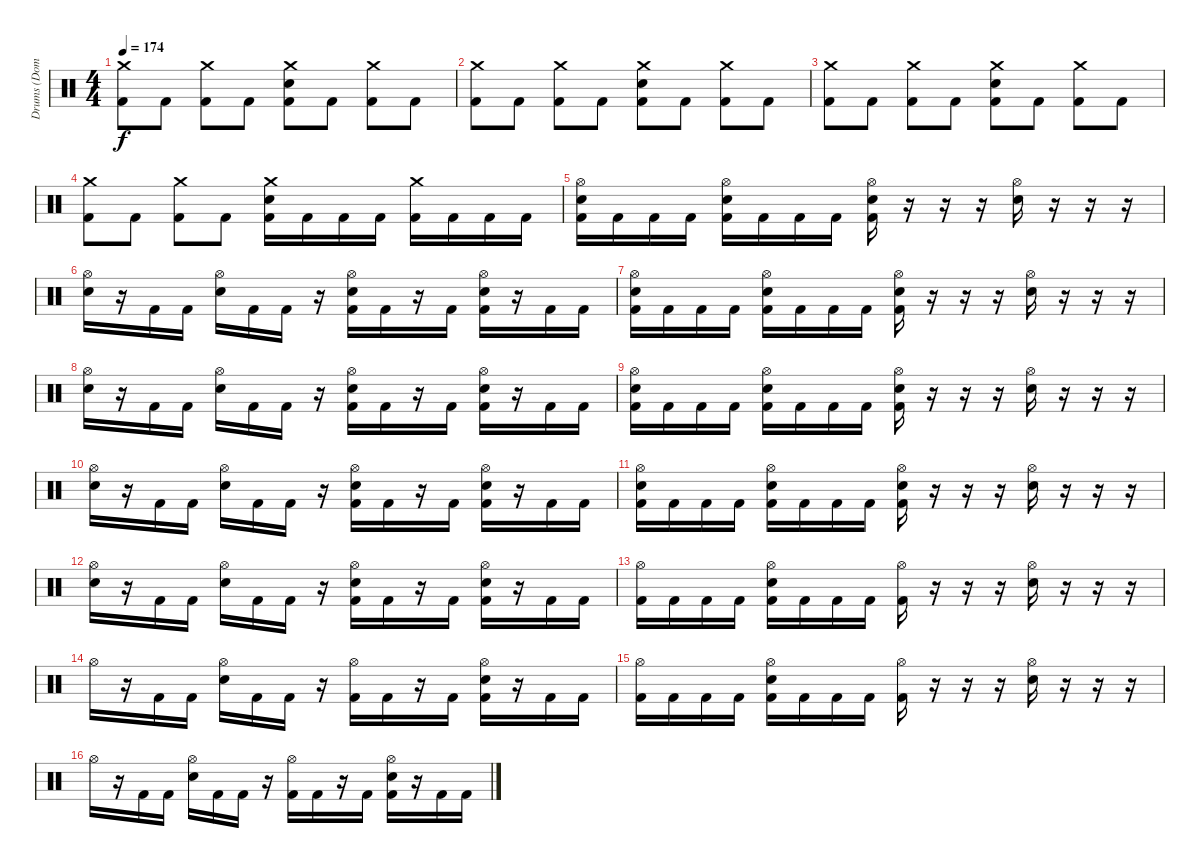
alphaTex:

\track ("Drums (Dominik)" "Drums (Dom") {instrument percussion}
\staff {score}
\articulation defaults
\ts (4 4)
\tempo 174
\clef neutral
\ks c
("Crash medium (hit)" "Kick (hit) 2").8{dy f} "Kick (hit) 2".8 ("Crash medium (hit)" "Kick (hit) 2").8 "Kick (hit) 2".8 ("Crash medium (hit)" "Electric Snare (hit)" "Kick (hit) 2").8 "Kick (hit) 2".8 ("Crash medium (hit)" "Kick (hit) 2").8 "Kick (hit) 2".8 |
("Crash medium (hit)" "Kick (hit) 2").8 "Kick (hit) 2".8 ("Crash medium (hit)" "Kick (hit) 2").8 "Kick (hit) 2".8 ("Crash medium (hit)" "Electric Snare (hit)" "Kick (hit) 2").8 "Kick (hit) 2".8 ("Crash medium (hit)" "Kick (hit) 2").8 "Kick (hit) 2".8 |
("Crash medium (hit)" "Kick (hit) 2").8 "Kick (hit) 2".8 ("Crash medium (hit)" "Kick (hit) 2").8 "Kick (hit) 2".8 ("Crash medium (hit)" "Electric Snare (hit)" "Kick (hit) 2").8 "Kick (hit) 2".8 ("Crash medium (hit)" "Kick (hit) 2").8 "Kick (hit) 2".8 |
("Crash medium (hit)" "Kick (hit) 2").8 "Kick (hit) 2".8 ("Crash medium (hit)" "Kick (hit) 2").8 "Kick (hit) 2".8 ("Crash medium (hit)" "Electric Snare (hit)" "Kick (hit) 2").16 "Kick (hit) 2".16 "Kick (hit) 2".16 "Kick (hit) 2".16 ("Crash medium (hit)" "Kick (hit) 2").16 "Kick (hit) 2".16 "Kick (hit) 2".16 "Kick (hit) 2".16 |
("Hi-Hat (open)" "Electric Snare (hit)" "Kick (hit) 2").16 "Kick (hit) 2".16 "Kick (hit) 2".16 "Kick (hit) 2".16 ("Hi-Hat (open)" "Electric Snare (hit)" "Kick (hit) 2").16 "Kick (hit) 2".16 "Kick (hit) 2".16 "Kick (hit) 2".16 ("Hi-Hat (open)" "Electric Snare (hit)" "Kick (hit) 2").16 r.16 r.16 r.16 ("Hi-Hat (open)" "Electric Snare (hit)").16 r.16 r.16 r.16 |
("Hi-Hat (open)" "Electric Snare (hit)").16 r.16 "Kick (hit) 2".16 "Kick (hit) 2".16 ("Hi-Hat (open)" "Electric Snare (hit)").16 "Kick (hit) 2".16 "Kick (hit) 2".16 r.16 ("Hi-Hat (open)" "Electric Snare (hit)" "Kick (hit) 2").16 "Kick (hit) 2".16 r.16 "Kick (hit) 2".16 ("Hi-Hat (open)" "Electric Snare (hit)" "Kick (hit) 2").16 r.16 "Kick (hit) 2".16 "Kick (hit) 2".16 |
("Hi-Hat (open)" "Electric Snare (hit)" "Kick (hit) 2").16 "Kick (hit) 2".16 "Kick (hit) 2".16 "Kick (hit) 2".16 ("Hi-Hat (open)" "Electric Snare (hit)" "Kick (hit) 2").16 "Kick (hit) 2".16 "Kick (hit) 2".16 "Kick (hit) 2".16 ("Hi-Hat (open)" "Electric Snare (hit)" "Kick (hit) 2").16 r.16 r.16 r.16 ("Hi-Hat (open)" "Electric Snare (hit)").16 r.16 r.16 r.16 |
("Hi-Hat (open)" "Electric Snare (hit)").16 r.16 "Kick (hit) 2".16 "Kick (hit) 2".16 ("Hi-Hat (open)" "Electric Snare (hit)").16 "Kick (hit) 2".16 "Kick (hit) 2".16 r.16 ("Hi-Hat (open)" "Electric Snare (hit)" "Kick (hit) 2").16 "Kick (hit) 2".16 r.16 "Kick (hit) 2".16 ("Hi-Hat (open)" "Electric Snare (hit)" "Kick (hit) 2").16 r.16 "Kick (hit) 2".16 "Kick (hit) 2".16 |
("Hi-Hat (open)" "Electric Snare (hit)" "Kick (hit) 2").16 "Kick (hit) 2".16 "Kick (hit) 2".16 "Kick (hit) 2".16 ("Hi-Hat (open)" "Electric Snare (hit)" "Kick (hit) 2").16 "Kick (hit) 2".16 "Kick (hit) 2".16 "Kick (hit) 2".16 ("Hi-Hat (open)" "Electric Snare (hit)" "Kick (hit) 2").16 r.16 r.16 r.16 ("Hi-Hat (open)" "Electric Snare (hit)").16 r.16 r.16 r.16 |
("Hi-Hat (open)" "Electric Snare (hit)").16 r.16 "Kick (hit) 2".16 "Kick (hit) 2".16 ("Hi-Hat (open)" "Electric Snare (hit)").16 "Kick (hit) 2".16 "Kick (hit) 2".16 r.16 ("Hi-Hat (open)" "Electric Snare (hit)" "Kick (hit) 2").16 "Kick (hit) 2".16 r.16 "Kick (hit) 2".16 ("Hi-Hat (open)" "Electric Snare (hit)" "Kick (hit) 2").16 r.16 "Kick (hit) 2".16 "Kick (hit) 2".16 |
("Hi-Hat (open)" "Electric Snare (hit)" "Kick (hit) 2").16 "Kick (hit) 2".16 "Kick (hit) 2".16 "Kick (hit) 2".16 ("Hi-Hat (open)" "Electric Snare (hit)" "Kick (hit) 2").16 "Kick (hit) 2".16 "Kick (hit) 2".16 "Kick (hit) 2".16 ("Hi-Hat (open)" "Electric Snare (hit)" "Kick (hit) 2").16 r.16 r.16 r.16 ("Hi-Hat (open)" "Electric Snare (hit)").16 r.16 r.16 r.16 |
("Hi-Hat (open)" "Electric Snare (hit)").16 r.16 "Kick (hit) 2".16 "Kick (hit) 2".16 ("Hi-Hat (open)" "Electric Snare (hit)").16 "Kick (hit) 2".16 "Kick (hit) 2".16 r.16 ("Hi-Hat (open)" "Electric Snare (hit)" "Kick (hit) 2").16 "Kick (hit) 2".16 r.16 "Kick (hit) 2".16 ("Hi-Hat (open)" "Electric Snare (hit)" "Kick (hit) 2").16 r.16 "Kick (hit) 2".16 "Kick (hit) 2".16 |
("Hi-Hat (open)" "Kick (hit) 2").16 "Kick (hit) 2".16 "Kick (hit) 2".16 "Kick (hit) 2".16 ("Hi-Hat (open)" "Electric Snare (hit)" "Kick (hit) 2").16 "Kick (hit) 2".16 "Kick (hit) 2".16 "Kick (hit) 2".16 ("Hi-Hat (open)" "Kick (hit) 2").16 r.16 r.16 r.16 ("Hi-Hat (open)" "Electric Snare (hit)").16 r.16 r.16 r.16 |
"Hi-Hat (open)".16 r.16 "Kick (hit) 2".16 "Kick (hit) 2".16 ("Hi-Hat (open)" "Electric Snare (hit)").16 "Kick (hit) 2".16 "Kick (hit) 2".16 r.16 ("Hi-Hat (open)" "Kick (hit) 2").16 "Kick (hit) 2".16 r.16 "Kick (hit) 2".16 ("Hi-Hat (open)" "Electric Snare (hit)" "Kick (hit) 2").16 r.16 "Kick (hit) 2".16 "Kick (hit) 2".16 |
("Hi-Hat (open)" "Kick (hit) 2").16 "Kick (hit) 2".16 "Kick (hit) 2".16 "Kick (hit) 2".16 ("Hi-Hat (open)" "Electric Snare (hit)" "Kick (hit) 2").16 "Kick (hit) 2".16 "Kick (hit) 2".16 "Kick (hit) 2".16 ("Hi-Hat (open)" "Kick (hit) 2").16 r.16 r.16 r.16 ("Hi-Hat (open)" "Electric Snare (hit)").16 r.16 r.16 r.16 |
"Hi-Hat (open)".16 r.16 "Kick (hit) 2".16 "Kick (hit) 2".16 ("Hi-Hat (open)" "Electric Snare (hit)").16 "Kick (hit) 2".16 "Kick (hit) 2".16 r.16 ("Hi-Hat (open)" "Kick (hit) 2").16 "Kick (hit) 2".16 r.16 "Kick (hit) 2".16 ("Hi-Hat (open)" "Electric Snare (hit)" "Kick (hit) 2").16 r.16 "Kick (hit) 2".16 "Kick (hit) 2".16
